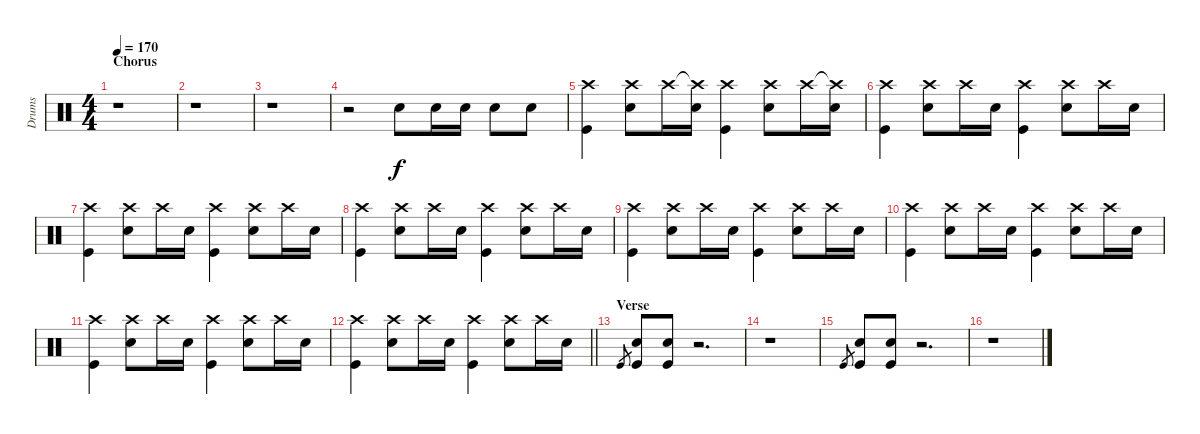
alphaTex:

\track ("Drums" "Drums") {instrument percussion}
\staff {score}
\articulation defaults
\ts (4 4)
\section ("" "Chorus")
\tempo 170
\clef neutral
\ks c
r.1{dy f} |
r.1 |
r.1 |
r.2 "Snare (hit) 2".8 "Snare (hit) 2".16 "Snare (hit) 2".16 "Snare (hit) 2".8 "Snare (hit) 2".8 |
("Crash high (hit)" "Kick (hit)").4 ("Crash high (hit)" "Snare (hit) 2").8 "Crash high (hit)".16 ("Crash high (hit)"{t} "Snare (hit) 2").16 ("Crash high (hit)" "Kick (hit)").4 ("Crash high (hit)" "Snare (hit) 2").8 "Crash high (hit)".16 ("Crash high (hit)"{t} "Snare (hit) 2").16 |
("Crash high (hit)" "Kick (hit)").4 ("Crash high (hit)" "Snare (hit) 2").8 "Crash high (hit)".16 "Snare (hit) 2".16 ("Crash high (hit)" "Kick (hit)").4 ("Crash high (hit)" "Snare (hit) 2").8 "Crash high (hit)".16 "Snare (hit) 2".16 |
("Crash high (hit)" "Kick (hit)").4 ("Crash high (hit)" "Snare (hit) 2").8 "Crash high (hit)".16 "Snare (hit) 2".16 ("Crash high (hit)" "Kick (hit)").4 ("Crash high (hit)" "Snare (hit) 2").8 "Crash high (hit)".16 "Snare (hit) 2".16 |
("Crash high (hit)" "Kick (hit)").4 ("Crash high (hit)" "Snare (hit) 2").8 "Crash high (hit)".16 "Snare (hit) 2".16 ("Crash high (hit)" "Kick (hit)").4 ("Crash high (hit)" "Snare (hit) 2").8 "Crash high (hit)".16 "Snare (hit) 2".16 |
("Crash high (hit)" "Kick (hit)").4 ("Crash high (hit)" "Snare (hit) 2").8 "Crash high (hit)".16 "Snare (hit) 2".16 ("Crash high (hit)" "Kick (hit)").4 ("Crash high (hit)" "Snare (hit) 2").8 "Crash high (hit)".16 "Snare (hit) 2".16 |
("Crash high (hit)" "Kick (hit)").4 ("Crash high (hit)" "Snare (hit) 2").8 "Crash high (hit)".16 "Snare (hit) 2".16 ("Crash high (hit)" "Kick (hit)").4 ("Crash high (hit)" "Snare (hit) 2").8 "Crash high (hit)".16 "Snare (hit) 2".16 |
("Crash high (hit)" "Kick (hit)").4 ("Crash high (hit)" "Snare (hit) 2").8 "Crash high (hit)".16 "Snare (hit) 2".16 ("Crash high (hit)" "Kick (hit)").4 ("Crash high (hit)" "Snare (hit) 2").8 "Crash high (hit)".16 "Snare (hit) 2".16 |
\barLineRight lightlight
("Crash high (hit)" "Kick (hit)").4 ("Crash high (hit)" "Snare (hit) 2").8 "Crash high (hit)".16 "Snare (hit) 2".16 ("Crash high (hit)" "Kick (hit)").4 ("Crash high (hit)" "Snare (hit) 2").8 "Crash high (hit)".16 "Snare (hit) 2".16 |
\section ("" "Verse")
"Kick (hit)".8{gr} ("Snare (hit) 2" "Kick (hit)").8 ("Snare (hit) 2" "Kick (hit)").8 r.2{d} |
r.1 |
"Kick (hit)".8{gr} ("Snare (hit) 2" "Kick (hit)").8 ("Snare (hit) 2" "Kick (hit)").8 r.2{d} |
r.1
